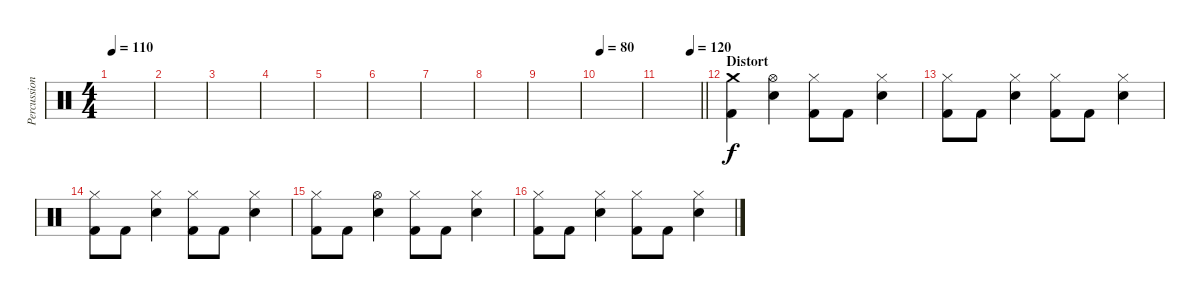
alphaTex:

\track ("Percussion" "Percussion") {instrument percussion}
\staff {score}
\articulation defaults
\ts (4 4)
\tempo 110
\clef neutral
\ks c
|
|
|
|
|
|
|
|
|
\tempo 80
|
\tempo (120 0.75)
\barLineRight lightlight
|
\section ("" "Distort")
("Crash medium (hit)" "Kick (hit) 2").4 ("Hi-Hat (open)" "Snare (hit) 2").4 ("Hi-Hat (closed)" "Kick (hit) 2").8 "Kick (hit) 2".8 ("Hi-Hat (closed)" "Snare (hit) 2").4 |
("Hi-Hat (closed)" "Kick (hit) 2").8 "Kick (hit) 2".8 ("Hi-Hat (closed)" "Snare (hit) 2").4 ("Hi-Hat (closed)" "Kick (hit) 2").8 "Kick (hit) 2".8 ("Hi-Hat (closed)" "Snare (hit) 2").4 |
("Hi-Hat (closed)" "Kick (hit) 2").8 "Kick (hit) 2".8 ("Hi-Hat (closed)" "Snare (hit) 2").4 ("Hi-Hat (closed)" "Kick (hit) 2").8 "Kick (hit) 2".8 ("Hi-Hat (closed)" "Snare (hit) 2").4 |
("Hi-Hat (closed)" "Kick (hit) 2").8 "Kick (hit) 2".8 ("Hi-Hat (open)" "Snare (hit) 2").4 ("Hi-Hat (closed)" "Kick (hit) 2").8 "Kick (hit) 2".8 ("Hi-Hat (closed)" "Snare (hit) 2").4 |
("Hi-Hat (closed)" "Kick (hit) 2").8 "Kick (hit) 2".8 ("Hi-Hat (closed)" "Snare (hit) 2").4 ("Hi-Hat (closed)" "Kick (hit) 2").8 "Kick (hit) 2".8 ("Hi-Hat (closed)" "Snare (hit) 2").4
